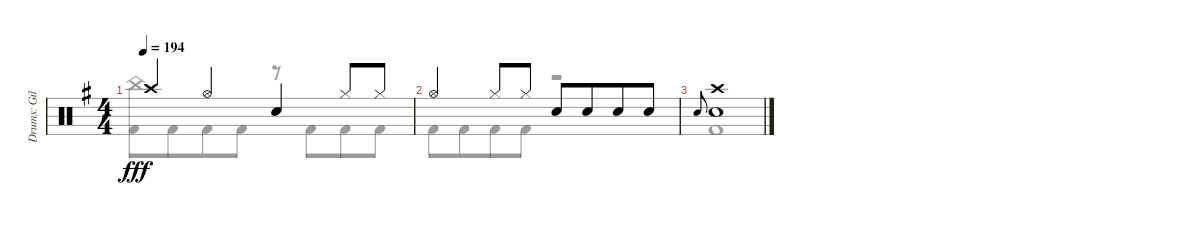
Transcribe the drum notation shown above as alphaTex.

\track ("Drums: Gil" "Drums: Gil") {instrument percussion}
\staff {score}
\articulation defaults
\voice
\ts (4 4)
\tempo 194
\clef neutral
\ks g "Crash high (hit)".4{dy fff} "Hi-Hat (open)".4 "Snare (hit) 2".4 "Hi-Hat (closed)".8 "Hi-Hat (closed)".8
|
"Hi-Hat (open)".4 "Hi-Hat (closed)".8 "Hi-Hat (closed)".8 "Snare (hit) 2".8 "Snare (hit) 2".8{beam merge} "Snare (hit) 2".8 "Snare (hit) 2".8 |
"Electric Snare (hit)".8{gr onbeat} ("Crash high (hit)" "Snare (hit) 2").1
\voice
\clef neutral
\ottava regular
\simile none
\ks g
("China (hit)" "Kick (hit) 2").8{dy fff} "Kick (hit) 2".8{beam merge} "Kick (hit) 2".8 "Kick (hit) 2".8 r.8{beam merge} "Kick (hit) 2".8{beam merge} "Kick (hit) 2".8 "Kick (hit) 2".8 |
"Kick (hit) 2".8 "Kick (hit) 2".8{beam merge} "Kick (hit) 2".8 "Kick (hit) 2".8 r.2 |
"Kick (hit) 2".1
